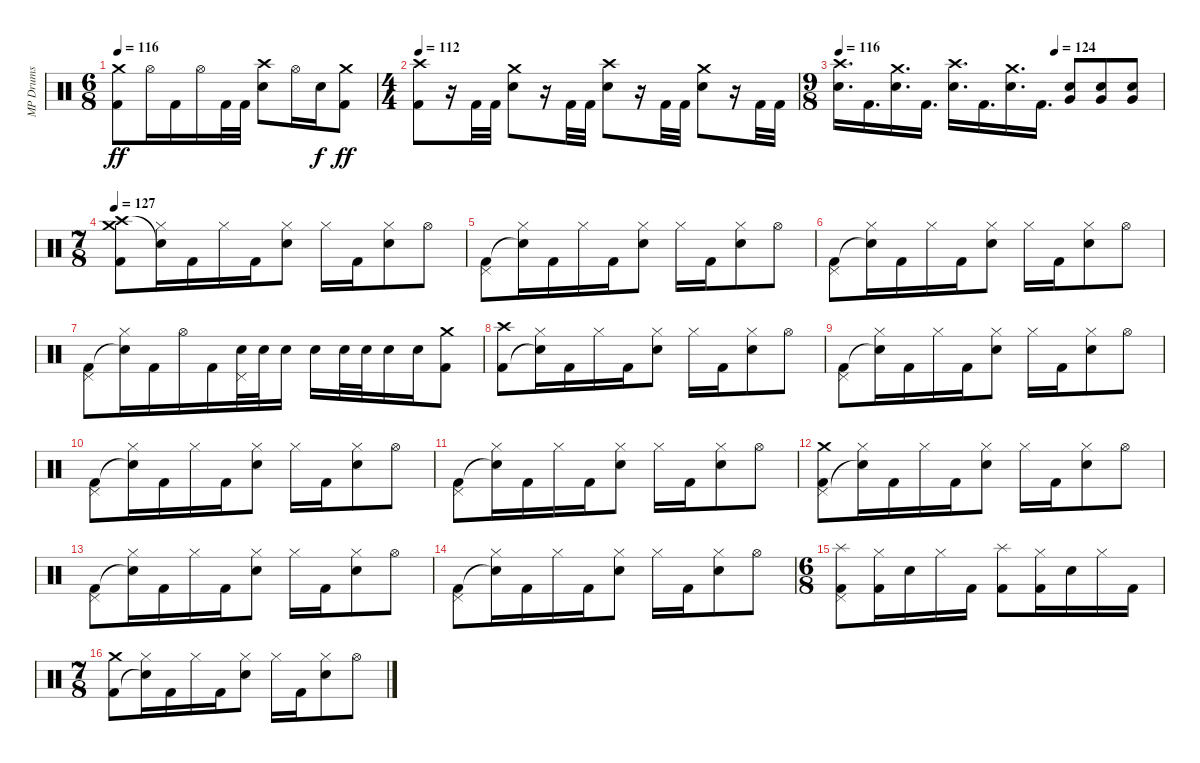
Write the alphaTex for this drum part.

\track ("MP Drums" "MP Drums") {instrument percussion}
\staff {score}
\articulation defaults
\ts (6 8)
\tempo 116
\clef neutral
\ks c
("Crash medium (hit)" "Kick (hit) 2").8{dy ff} "Hi-Hat (open)".16 "Kick (hit) 2".16 "Hi-Hat (open)".16 "Kick (hit) 2".32 "Kick (hit) 2".32 ("Crash high (hit)" "Snare (hit) 2").8 "Hi-Hat (open)".16 "Snare (hit) 2".16{dy f} ("Crash medium (hit)" "Kick (hit) 2").8{dy ff} |
\ts (4 4)
\tempo 112
("Crash high (hit)" "Kick (hit) 2").8 r.16 "Kick (hit) 2".32 "Kick (hit) 2".32 ("Crash medium (hit)" "Snare (hit) 2").8 r.16 "Kick (hit) 2".32 "Kick (hit) 2".32 ("Crash high (hit)" "Snare (hit) 2").8 r.16 "Kick (hit) 2".32 "Kick (hit) 2".32 ("Crash medium (hit)" "Snare (hit) 2").8 r.16 "Kick (hit) 2".32 "Kick (hit) 2".32 |
\ts (9 8)
\tempo 116
\tempo (124 0.6666666666666666)
("Crash high (hit)" "Snare (hit) 2").16{d} "Kick (hit) 2".16{d} ("Crash medium (hit)" "Snare (hit) 2").16{d} "Kick (hit) 2".16{d} ("Crash high (hit)" "Snare (hit) 2").16{d} "Kick (hit) 2".16{d} ("Crash medium (hit)" "Snare (hit) 2").16{d} "Kick (hit) 2".16{d} ("Very Low Tom (hit)" "Snare (hit) 2").8 ("Very Low Tom (hit)" "Snare (hit) 2").8 ("Very Low Tom (hit)" "Snare (hit) 2").8 |
\ts (7 8)
\tempo 127
("Crash medium (hit)" "Crash high (hit)" "Kick (hit) 2").8 ("Hi-Hat (closed)" "Snare (hit)"{t}).16 "Kick (hit) 2".16 "Hi-Hat (closed)".16 "Kick (hit) 2".16 ("Hi-Hat (closed)" "Snare (hit) 2").8 "Hi-Hat (closed)".16 "Kick (hit) 2".16 ("Hi-Hat (closed)" "Snare (hit) 2").8 "Hi-Hat (open)".8 |
("Pedal Hi-Hat (hit)" "Kick (hit) 2").8 ("Hi-Hat (closed)" "Snare (hit)"{t}).16 "Kick (hit) 2".16 "Hi-Hat (closed)".16 "Kick (hit) 2".16 ("Hi-Hat (closed)" "Snare (hit) 2").8 "Hi-Hat (closed)".16 "Kick (hit) 2".16 ("Hi-Hat (closed)" "Snare (hit) 2").8 "Hi-Hat (open)".8 |
("Pedal Hi-Hat (hit)" "Kick (hit) 2").8 ("Hi-Hat (closed)" "Snare (hit)"{t}).16 "Kick (hit) 2".16 "Hi-Hat (closed)".16 "Kick (hit) 2".16 ("Hi-Hat (closed)" "Snare (hit) 2").8 "Hi-Hat (closed)".16 "Kick (hit) 2".16 ("Hi-Hat (closed)" "Snare (hit) 2").8 "Hi-Hat (open)".8 |
("Pedal Hi-Hat (hit)" "Kick (hit) 2").8 ("Hi-Hat (closed)" "Snare (hit)"{t}).16 "Kick (hit) 2".16 "Hi-Hat (open)".16 "Kick (hit) 2".16 ("Pedal Hi-Hat (hit)" "Snare (hit) 2").32 "Snare (hit) 2".32 "Snare (hit) 2".16 "Snare (hit) 2".16 "Snare (hit) 2".32 "Snare (hit) 2".32 "Snare (hit) 2".16 "Snare (hit) 2".16 ("Crash medium (hit)" "Kick (hit) 2").8 |
("Crash high (hit)" "Kick (hit) 2").8 ("Hi-Hat (closed)" "Snare (hit)"{t}).16 "Kick (hit) 2".16 "Hi-Hat (closed)".16 "Kick (hit) 2".16 ("Hi-Hat (closed)" "Snare (hit) 2").8 "Hi-Hat (closed)".16 "Kick (hit) 2".16 ("Hi-Hat (closed)" "Snare (hit) 2").8 "Hi-Hat (open)".8 |
("Pedal Hi-Hat (hit)" "Kick (hit) 2").8 ("Hi-Hat (closed)" "Snare (hit)"{t}).16 "Kick (hit) 2".16 "Hi-Hat (closed)".16 "Kick (hit) 2".16 ("Hi-Hat (closed)" "Snare (hit) 2").8 "Hi-Hat (closed)".16 "Kick (hit) 2".16 ("Hi-Hat (closed)" "Snare (hit) 2").8 "Hi-Hat (open)".8 |
("Pedal Hi-Hat (hit)" "Kick (hit) 2").8 ("Hi-Hat (closed)" "Snare (hit)"{t}).16 "Kick (hit) 2".16 "Hi-Hat (closed)".16 "Kick (hit) 2".16 ("Hi-Hat (closed)" "Snare (hit) 2").8 "Hi-Hat (closed)".16 "Kick (hit) 2".16 ("Hi-Hat (closed)" "Snare (hit) 2").8 "Hi-Hat (open)".8 |
("Pedal Hi-Hat (hit)" "Kick (hit) 2").8 ("Hi-Hat (closed)" "Snare (hit)"{t}).16 "Kick (hit) 2".16 "Hi-Hat (closed)".16 "Kick (hit) 2".16 ("Hi-Hat (closed)" "Snare (hit) 2").8 "Hi-Hat (closed)".16 "Kick (hit) 2".16 ("Hi-Hat (closed)" "Snare (hit) 2").8 "Hi-Hat (open)".8 |
("Crash medium (hit)" "Pedal Hi-Hat (hit)" "Kick (hit) 2").8 ("Hi-Hat (closed)" "Snare (hit)"{t}).16 "Kick (hit) 2".16 "Hi-Hat (closed)".16 "Kick (hit) 2".16 ("Hi-Hat (closed)" "Snare (hit) 2").8 "Hi-Hat (closed)".16 "Kick (hit) 2".16 ("Hi-Hat (closed)" "Snare (hit) 2").8 "Hi-Hat (open)".8 |
("Pedal Hi-Hat (hit)" "Kick (hit) 2").8 ("Hi-Hat (closed)" "Snare (hit)"{t}).16 "Kick (hit) 2".16 "Hi-Hat (closed)".16 "Kick (hit) 2".16 ("Hi-Hat (closed)" "Snare (hit) 2").8 "Hi-Hat (closed)".16 "Kick (hit) 2".16 ("Hi-Hat (closed)" "Snare (hit) 2").8 "Hi-Hat (open)".8 |
("Pedal Hi-Hat (hit)" "Kick (hit) 2").8 ("Hi-Hat (closed)" "Snare (hit)"{t}).16 "Kick (hit) 2".16 "Hi-Hat (closed)".16 "Kick (hit) 2".16 ("Hi-Hat (closed)" "Snare (hit) 2").8 "Hi-Hat (closed)".16 "Kick (hit) 2".16 ("Hi-Hat (closed)" "Snare (hit) 2").8 "Hi-Hat (open)".8 |
\ts (6 8)
("Splash (hit)" "Pedal Hi-Hat (hit)" "Kick (hit) 2").8 ("Hi-Hat (closed)" "Kick (hit) 2").16 "Snare (hit) 2".16 "Hi-Hat (closed)".16 "Kick (hit) 2".16 ("Splash (hit)" "Kick (hit) 2").8 ("Hi-Hat (closed)" "Kick (hit) 2").16 "Snare (hit) 2".16 "Hi-Hat (closed)".16 "Kick (hit) 2".16 |
\ts (7 8)
("Crash medium (hit)" "Kick (hit) 2").8 ("Hi-Hat (closed)" "Snare (hit)"{t}).16 "Kick (hit) 2".16 "Hi-Hat (closed)".16 "Kick (hit) 2".16 ("Hi-Hat (closed)" "Snare (hit) 2").8 "Hi-Hat (closed)".16 "Kick (hit) 2".16 ("Hi-Hat (closed)" "Snare (hit) 2").8 "Hi-Hat (open)".8
